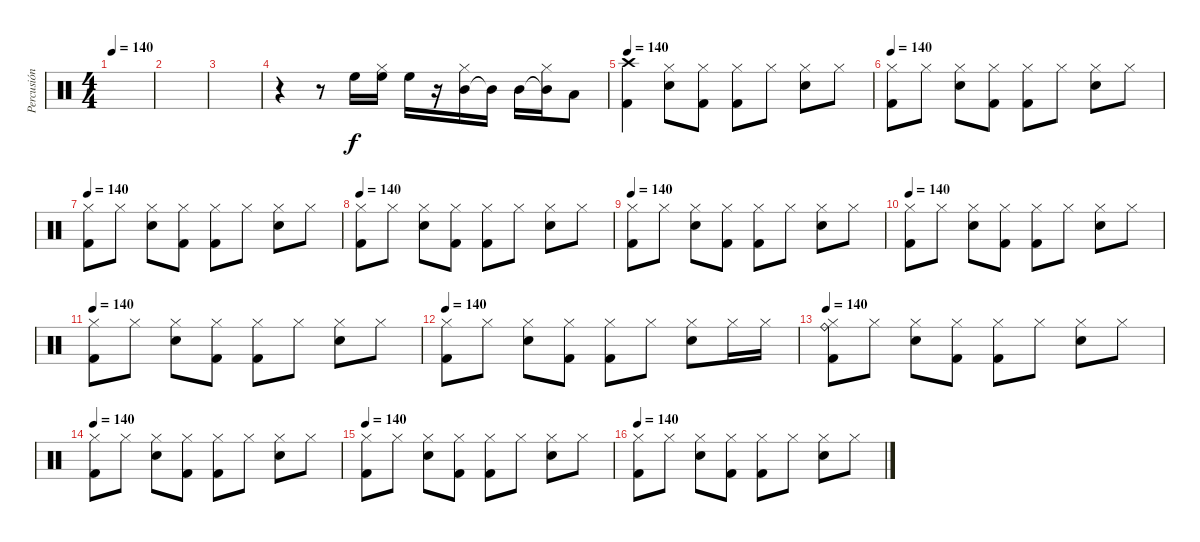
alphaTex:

\track ("Percusión" "Percusión") {instrument percussion}
\staff {score}
\articulation defaults
\ts (4 4)
\tempo 140
\clef neutral
\ks c
|
|
|
r.4 r.8 "High Floor Tom (hit)".16 ("High Floor Tom (hit)" "Hi-Hat (closed)").16 "High Floor Tom (hit)".16 r.16 ("Mid Tom (hit)" "Hi-Hat (closed)").16 "Mid Tom (hit)"{t}.16 "Mid Tom (hit)".16 ("Mid Tom (hit)"{t} "Hi-Hat (closed)").16 "Low Tom (hit)".8 |
\tempo 140
("Kick (hit) 2" "Crash high (hit)").4 ("Snare (hit) 2" "Hi-Hat (closed)").8 ("Kick (hit) 2" "Hi-Hat (closed)").8 ("Kick (hit) 2" "Hi-Hat (closed)").8 "Hi-Hat (closed)".8 ("Snare (hit) 2" "Hi-Hat (closed)").8 "Hi-Hat (closed)".8 |
\tempo 140
("Kick (hit) 2" "Hi-Hat (closed)").8 "Hi-Hat (closed)".8 ("Snare (hit) 2" "Hi-Hat (closed)").8 ("Kick (hit) 2" "Hi-Hat (closed)").8 ("Kick (hit) 2" "Hi-Hat (closed)").8 "Hi-Hat (closed)".8 ("Snare (hit) 2" "Hi-Hat (closed)").8 "Hi-Hat (closed)".8 |
\tempo 140
("Kick (hit) 2" "Hi-Hat (closed)").8 "Hi-Hat (closed)".8 ("Snare (hit) 2" "Hi-Hat (closed)").8 ("Kick (hit) 2" "Hi-Hat (closed)").8 ("Kick (hit) 2" "Hi-Hat (closed)").8 "Hi-Hat (closed)".8 ("Snare (hit) 2" "Hi-Hat (closed)").8 "Hi-Hat (closed)".8 |
\tempo 140
("Kick (hit) 2" "Hi-Hat (closed)").8 "Hi-Hat (closed)".8 ("Snare (hit) 2" "Hi-Hat (closed)").8 ("Kick (hit) 2" "Hi-Hat (closed)").8 ("Kick (hit) 2" "Hi-Hat (closed)").8 "Hi-Hat (closed)".8 ("Snare (hit) 2" "Hi-Hat (closed)").8 "Hi-Hat (closed)".8 |
\tempo 140
("Kick (hit) 2" "Hi-Hat (closed)").8 "Hi-Hat (closed)".8 ("Snare (hit) 2" "Hi-Hat (closed)").8 ("Kick (hit) 2" "Hi-Hat (closed)").8 ("Kick (hit) 2" "Hi-Hat (closed)").8 "Hi-Hat (closed)".8 ("Snare (hit) 2" "Hi-Hat (closed)").8 "Hi-Hat (closed)".8 |
\tempo 140
("Kick (hit) 2" "Hi-Hat (closed)").8 "Hi-Hat (closed)".8 ("Snare (hit) 2" "Hi-Hat (closed)").8 ("Kick (hit) 2" "Hi-Hat (closed)").8 ("Kick (hit) 2" "Hi-Hat (closed)").8 "Hi-Hat (closed)".8 ("Snare (hit) 2" "Hi-Hat (closed)").8 "Hi-Hat (closed)".8 |
\tempo 140
("Kick (hit) 2" "Hi-Hat (closed)").8 "Hi-Hat (closed)".8 ("Snare (hit) 2" "Hi-Hat (closed)").8 ("Kick (hit) 2" "Hi-Hat (closed)").8 ("Kick (hit) 2" "Hi-Hat (closed)").8 "Hi-Hat (closed)".8 ("Snare (hit) 2" "Hi-Hat (closed)").8 "Hi-Hat (closed)".8 |
\tempo 140
("Kick (hit) 2" "Hi-Hat (closed)").8 "Hi-Hat (closed)".8 ("Snare (hit) 2" "Hi-Hat (closed)").8 ("Kick (hit) 2" "Hi-Hat (closed)").8 ("Kick (hit) 2" "Hi-Hat (closed)").8 "Hi-Hat (closed)".8 ("Snare (hit) 2" "Hi-Hat (closed)").8 "Hi-Hat (closed)".16 "Hi-Hat (closed)".16 |
\tempo 140
("Kick (hit) 2" "Ride (bell)" "Hi-Hat (closed)").8 "Hi-Hat (closed)".8 ("Snare (hit) 2" "Hi-Hat (closed)").8 ("Kick (hit) 2" "Hi-Hat (closed)").8 ("Kick (hit) 2" "Hi-Hat (closed)").8 "Hi-Hat (closed)".8 ("Snare (hit) 2" "Hi-Hat (closed)").8 "Hi-Hat (closed)".8 |
\tempo 140
("Kick (hit) 2" "Hi-Hat (closed)").8 "Hi-Hat (closed)".8 ("Snare (hit) 2" "Hi-Hat (closed)").8 ("Kick (hit) 2" "Hi-Hat (closed)").8 ("Kick (hit) 2" "Hi-Hat (closed)").8 "Hi-Hat (closed)".8 ("Snare (hit) 2" "Hi-Hat (closed)").8 "Hi-Hat (closed)".8 |
\tempo 140
("Kick (hit) 2" "Hi-Hat (closed)").8 "Hi-Hat (closed)".8 ("Snare (hit) 2" "Hi-Hat (closed)").8 ("Kick (hit) 2" "Hi-Hat (closed)").8 ("Kick (hit) 2" "Hi-Hat (closed)").8 "Hi-Hat (closed)".8 ("Snare (hit) 2" "Hi-Hat (closed)").8 "Hi-Hat (closed)".8 |
\tempo 140
("Kick (hit) 2" "Hi-Hat (closed)").8 "Hi-Hat (closed)".8 ("Snare (hit) 2" "Hi-Hat (closed)").8 ("Kick (hit) 2" "Hi-Hat (closed)").8 ("Kick (hit) 2" "Hi-Hat (closed)").8 "Hi-Hat (closed)".8 ("Snare (hit) 2" "Hi-Hat (closed)").8 "Hi-Hat (closed)".8
